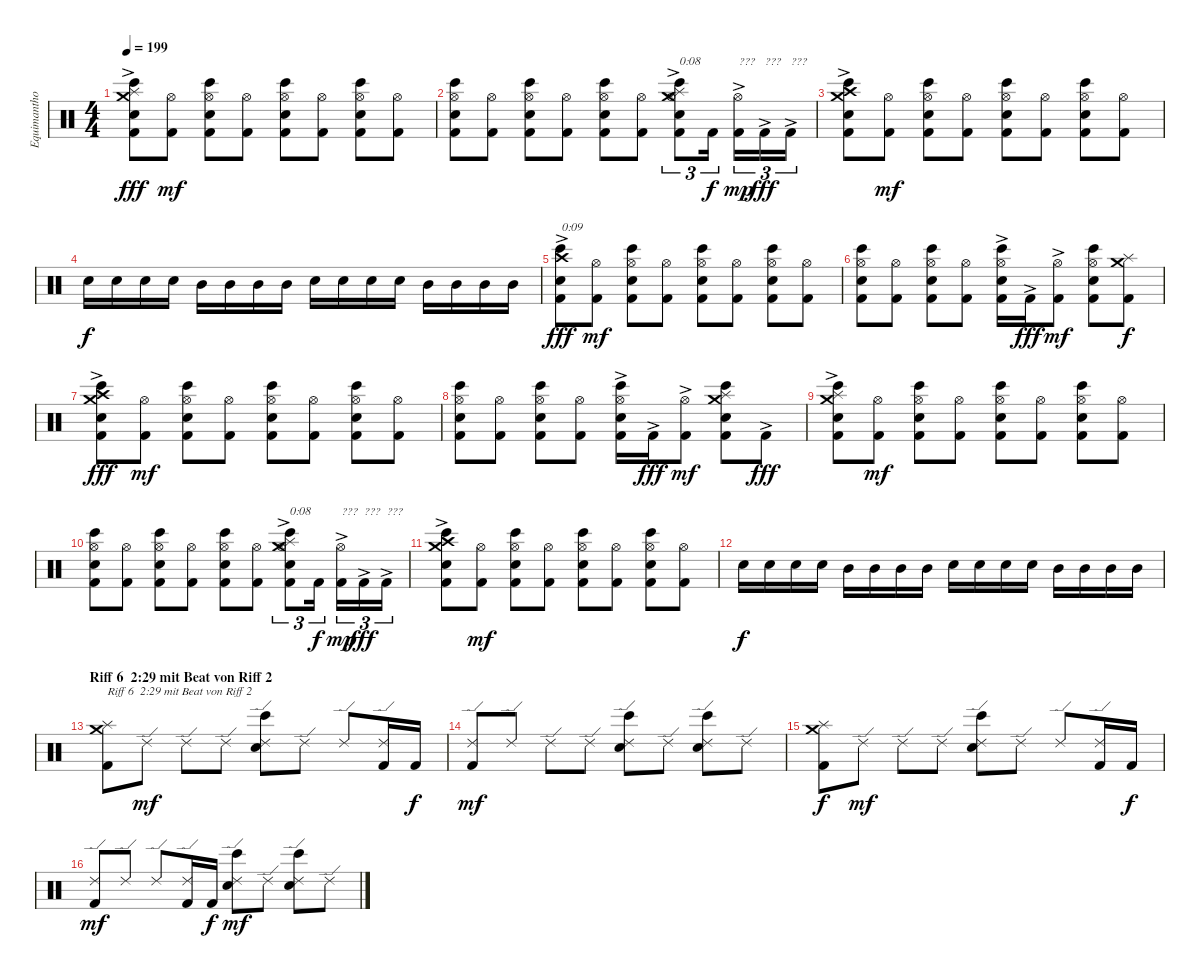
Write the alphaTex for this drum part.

\track ("Equimanthorn" "Equimantho") {instrument percussion}
\staff {score}
\articulation defaults
\ts (4 4)
\tempo 199
\clef neutral
\ks c
("Kick (hit) 2" "Bongo High (hit)" "Electric Snare (hit)" "Splash (hit)" "Crash medium (hit)"{ac}).8{dy fff} ("Kick (hit) 2" "Hi-Hat (open)").8{dy mf} ("Kick (hit) 2" "Bongo High (hit)" "Electric Snare (hit)" "Hi-Hat (open)").8 ("Kick (hit) 2" "Hi-Hat (open)").8 ("Kick (hit) 2" "Bongo High (hit)" "Electric Snare (hit)" "Hi-Hat (open)").8 ("Kick (hit) 2" "Hi-Hat (open)").8 ("Kick (hit) 2" "Bongo High (hit)" "Electric Snare (hit)" "Hi-Hat (open)").8 ("Kick (hit) 2" "Hi-Hat (open)").8 |
("Kick (hit) 2" "Bongo High (hit)" "Electric Snare (hit)" "Hi-Hat (open)").8 ("Kick (hit) 2" "Hi-Hat (open)").8 ("Kick (hit) 2" "Bongo High (hit)" "Electric Snare (hit)" "Hi-Hat (open)").8 ("Kick (hit) 2" "Hi-Hat (open)").8 ("Kick (hit) 2" "Bongo High (hit)" "Electric Snare (hit)" "Hi-Hat (open)").8 ("Kick (hit) 2" "Hi-Hat (open)").8 ("Kick (hit) 2"{ac} "Bongo High (hit)" "Electric Snare (hit)" "Hi-Hat (open)" "Splash (hit)" "Crash medium (hit)").8{tu (3 2) txt "0:08"} "Kick (hit) 2".16{tu (3 2) dy f} ("Kick (hit) 2"{ac} "Hi-Hat (open)").16{tu (3 2) txt "???" dy mp} "Kick (hit) 2"{ac}.16{tu (3 2) txt "???" dy fff} "Kick (hit) 2"{ac}.16{tu (3 2) txt "???"} |
("Kick (hit) 2" "Bongo High (hit)" "Electric Snare (hit)" "Crash high (hit)"{ac} "Crash medium (hit)").8 ("Kick (hit) 2" "Hi-Hat (open)").8{dy mf} ("Kick (hit) 2" "Bongo High (hit)" "Electric Snare (hit)" "Hi-Hat (open)").8 ("Kick (hit) 2" "Hi-Hat (open)").8 ("Kick (hit) 2" "Bongo High (hit)" "Electric Snare (hit)" "Hi-Hat (open)").8 ("Kick (hit) 2" "Hi-Hat (open)").8 ("Kick (hit) 2" "Bongo High (hit)" "Electric Snare (hit)" "Hi-Hat (open)").8 ("Kick (hit) 2" "Hi-Hat (open)").8 |
"Electric Snare (hit)".16{dy f} "Electric Snare (hit)".16 "Electric Snare (hit)".16 "Electric Snare (hit)".16 "Mid Tom (hit)".16 "Mid Tom (hit)".16 "Mid Tom (hit)".16 "Mid Tom (hit)".16 "Electric Snare (hit)".16 "Electric Snare (hit)".16 "Electric Snare (hit)".16 "Electric Snare (hit)".16 "Mid Tom (hit)".16 "Mid Tom (hit)".16 "Mid Tom (hit)".16 "Mid Tom (hit)".16 |
("Kick (hit) 2" "Bongo High (hit)" "Electric Snare (hit)" "Crash high (hit)"{ac}).8{txt "0:09" dy fff} ("Kick (hit) 2" "Hi-Hat (open)").8{dy mf} ("Kick (hit) 2" "Bongo High (hit)" "Electric Snare (hit)" "Hi-Hat (open)").8 ("Kick (hit) 2" "Hi-Hat (open)").8 ("Kick (hit) 2" "Bongo High (hit)" "Electric Snare (hit)" "Hi-Hat (open)").8 ("Kick (hit) 2" "Hi-Hat (open)").8 ("Kick (hit) 2" "Bongo High (hit)" "Electric Snare (hit)" "Hi-Hat (open)").8 ("Kick (hit) 2" "Hi-Hat (open)").8 |
("Kick (hit) 2" "Bongo High (hit)" "Electric Snare (hit)" "Hi-Hat (open)").8 ("Kick (hit) 2" "Hi-Hat (open)").8 ("Kick (hit) 2" "Bongo High (hit)" "Electric Snare (hit)" "Hi-Hat (open)").8 ("Kick (hit) 2" "Hi-Hat (open)").8 ("Kick (hit) 2"{ac} "Bongo High (hit)" "Electric Snare (hit)" "Hi-Hat (open)").16 "Kick (hit) 2"{ac}.16{dy fff} ("Kick (hit) 2"{ac} "Hi-Hat (open)").8{dy mf} ("Kick (hit) 2" "Bongo High (hit)" "Electric Snare (hit)" "Hi-Hat (open)").8 ("Kick (hit) 2" "Splash (hit)" "Crash medium (hit)").8{dy f} |
("Kick (hit) 2" "Bongo High (hit)" "Electric Snare (hit)" "Crash high (hit)"{ac} "Crash medium (hit)").8{dy fff} ("Kick (hit) 2" "Hi-Hat (open)").8{dy mf} ("Kick (hit) 2" "Bongo High (hit)" "Electric Snare (hit)" "Hi-Hat (open)").8 ("Kick (hit) 2" "Hi-Hat (open)").8 ("Kick (hit) 2" "Bongo High (hit)" "Electric Snare (hit)" "Hi-Hat (open)").8 ("Kick (hit) 2" "Hi-Hat (open)").8 ("Kick (hit) 2" "Bongo High (hit)" "Electric Snare (hit)" "Hi-Hat (open)").8 ("Kick (hit) 2" "Hi-Hat (open)").8 |
("Kick (hit) 2" "Bongo High (hit)" "Electric Snare (hit)" "Hi-Hat (open)").8 ("Kick (hit) 2" "Hi-Hat (open)").8 ("Kick (hit) 2" "Bongo High (hit)" "Electric Snare (hit)" "Hi-Hat (open)").8 ("Kick (hit) 2" "Hi-Hat (open)").8 ("Kick (hit) 2"{ac} "Bongo High (hit)" "Electric Snare (hit)" "Hi-Hat (open)").16 "Kick (hit) 2"{ac}.16{dy fff} ("Kick (hit) 2"{ac} "Hi-Hat (open)").8{dy mf} ("Kick (hit) 2" "Bongo High (hit)" "Electric Snare (hit)" "Splash (hit)" "Crash medium (hit)").8 "Kick (hit) 2"{ac}.8{dy fff} |
("Kick (hit) 2" "Bongo High (hit)" "Electric Snare (hit)" "Splash (hit)" "Crash medium (hit)"{ac}).8 ("Kick (hit) 2" "Hi-Hat (open)").8{dy mf} ("Kick (hit) 2" "Bongo High (hit)" "Electric Snare (hit)" "Hi-Hat (open)").8 ("Kick (hit) 2" "Hi-Hat (open)").8 ("Kick (hit) 2" "Bongo High (hit)" "Electric Snare (hit)" "Hi-Hat (open)").8 ("Kick (hit) 2" "Hi-Hat (open)").8 ("Kick (hit) 2" "Bongo High (hit)" "Electric Snare (hit)" "Hi-Hat (open)").8 ("Kick (hit) 2" "Hi-Hat (open)").8 |
("Kick (hit) 2" "Bongo High (hit)" "Electric Snare (hit)" "Hi-Hat (open)").8 ("Kick (hit) 2" "Hi-Hat (open)").8 ("Kick (hit) 2" "Bongo High (hit)" "Electric Snare (hit)" "Hi-Hat (open)").8 ("Kick (hit) 2" "Hi-Hat (open)").8 ("Kick (hit) 2" "Bongo High (hit)" "Electric Snare (hit)" "Hi-Hat (open)").8 ("Kick (hit) 2" "Hi-Hat (open)").8 ("Kick (hit) 2"{ac} "Bongo High (hit)" "Electric Snare (hit)" "Hi-Hat (open)" "Splash (hit)" "Crash medium (hit)").8{tu (3 2) txt "0:08"} "Kick (hit) 2".16{tu (3 2) dy f} ("Kick (hit) 2"{ac} "Hi-Hat (open)").16{tu (3 2) txt "???" dy mp} "Kick (hit) 2"{ac}.16{tu (3 2) txt "???" dy fff} "Kick (hit) 2"{ac}.16{tu (3 2) txt "???"} |
("Kick (hit) 2" "Bongo High (hit)" "Electric Snare (hit)" "Crash high (hit)"{ac} "Crash medium (hit)").8 ("Kick (hit) 2" "Hi-Hat (open)").8{dy mf} ("Kick (hit) 2" "Bongo High (hit)" "Electric Snare (hit)" "Hi-Hat (open)").8 ("Kick (hit) 2" "Hi-Hat (open)").8 ("Kick (hit) 2" "Bongo High (hit)" "Electric Snare (hit)" "Hi-Hat (open)").8 ("Kick (hit) 2" "Hi-Hat (open)").8 ("Kick (hit) 2" "Bongo High (hit)" "Electric Snare (hit)" "Hi-Hat (open)").8 ("Kick (hit) 2" "Hi-Hat (open)").8 |
"Electric Snare (hit)".16{dy f} "Electric Snare (hit)".16 "Electric Snare (hit)".16 "Electric Snare (hit)".16 "Mid Tom (hit)".16 "Mid Tom (hit)".16 "Mid Tom (hit)".16 "Mid Tom (hit)".16 "Electric Snare (hit)".16 "Electric Snare (hit)".16 "Electric Snare (hit)".16 "Electric Snare (hit)".16 "Mid Tom (hit)".16 "Mid Tom (hit)".16 "Mid Tom (hit)".16 "Mid Tom (hit)".16 |
\section ("" "Riff 6  2:29 mit Beat von Riff 2")
("Kick (hit) 2" "Splash (hit)" "Crash medium (hit)").8{txt "Riff 6  2:29 mit Beat von Riff 2"} "Ride (edge) 2".8{dy mf} "Ride (edge) 2".8 "Ride (edge) 2".8 ("Bongo High (hit)" "Electric Snare (hit)" "Ride (edge) 2").8 "Ride (edge) 2".8 "Ride (edge) 2".8 ("Kick (hit) 2" "Ride (edge) 2").16 "Kick (hit) 2".16{dy f} |
("Kick (hit) 2" "Ride (edge) 2").8{dy mf} "Ride (edge) 2".8 "Ride (edge) 2".8 "Ride (edge) 2".8 ("Bongo High (hit)" "Electric Snare (hit)" "Ride (edge) 2").8 "Ride (edge) 2".8 ("Bongo High (hit)" "Electric Snare (hit)" "Ride (edge) 2").8 "Ride (edge) 2".8 |
("Kick (hit) 2" "Splash (hit)" "Crash medium (hit)").8{dy f} "Ride (edge) 2".8{dy mf} "Ride (edge) 2".8 "Ride (edge) 2".8 ("Bongo High (hit)" "Electric Snare (hit)" "Ride (edge) 2").8 "Ride (edge) 2".8 "Ride (edge) 2".8 ("Kick (hit) 2" "Ride (edge) 2").16 "Kick (hit) 2".16{dy f} |
("Kick (hit) 2" "Ride (edge) 2").8{dy mf} "Ride (edge) 2".8 "Ride (edge) 2".8 ("Kick (hit) 2" "Ride (edge) 2").16 "Kick (hit) 2".16{dy f} ("Bongo High (hit)" "Electric Snare (hit)" "Ride (edge) 2").8{dy mf} "Ride (edge) 2".8 ("Bongo High (hit)" "Electric Snare (hit)" "Ride (edge) 2").8 "Ride (edge) 2".8
